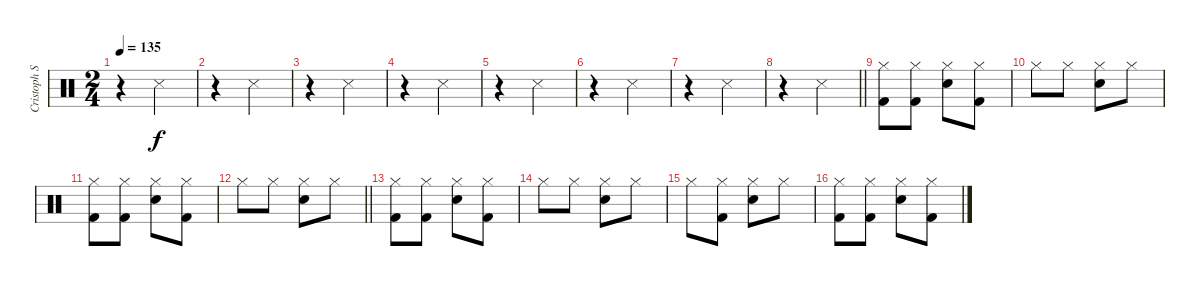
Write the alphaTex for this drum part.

\track ("Cristoph Schneider / Drums" "Cristoph S") {instrument percussion}
\staff {score}
\articulation defaults
\ts (2 4)
\tempo 135
\clef neutral
\ks c
r.4{dy f} "Metronome (hit)".4 |
r.4 "Metronome (hit)".4 |
r.4 "Metronome (hit)".4 |
r.4 "Metronome (hit)".4 |
r.4 "Metronome (hit)".4 |
r.4 "Metronome (hit)".4 |
r.4 "Metronome (hit)".4 |
\barLineRight lightlight
r.4 "Metronome (hit)".4 |
("Hi-Hat (closed)" "Kick (hit) 2").8 ("Hi-Hat (closed)" "Kick (hit) 2").8 ("Hi-Hat (closed)" "Electric Snare (hit)").8 ("Hi-Hat (closed)" "Kick (hit) 2").8 |
"Hi-Hat (closed)".8 "Hi-Hat (closed)".8 ("Electric Snare (hit)" "Hi-Hat (closed)").8 "Hi-Hat (closed)".8 |
("Hi-Hat (closed)" "Kick (hit) 2").8 ("Hi-Hat (closed)" "Kick (hit) 2").8 ("Hi-Hat (closed)" "Electric Snare (hit)").8 ("Hi-Hat (closed)" "Kick (hit) 2").8 |
\barLineRight lightlight "Hi-Hat (closed)".8 "Hi-Hat (closed)".8
("Hi-Hat (closed)" "Electric Snare (hit)").8 "Hi-Hat (closed)".8 |
("Hi-Hat (closed)" "Kick (hit) 2").8 ("Hi-Hat (closed)" "Kick (hit) 2").8 ("Hi-Hat (closed)" "Electric Snare (hit)").8 ("Hi-Hat (closed)" "Kick (hit) 2").8 |
"Hi-Hat (closed)".8 "Hi-Hat (closed)".8 ("Hi-Hat (closed)" "Electric Snare (hit)").8 "Hi-Hat (closed)".8 |
"Hi-Hat (closed)".8 ("Hi-Hat (closed)" "Kick (hit) 2").8 ("Hi-Hat (closed)" "Electric Snare (hit)").8 "Hi-Hat (closed)".8 |
("Hi-Hat (closed)" "Kick (hit) 2").8 ("Hi-Hat (closed)" "Kick (hit) 2").8 ("Hi-Hat (closed)" "Electric Snare (hit)").8 ("Hi-Hat (closed)" "Kick (hit) 2").8
